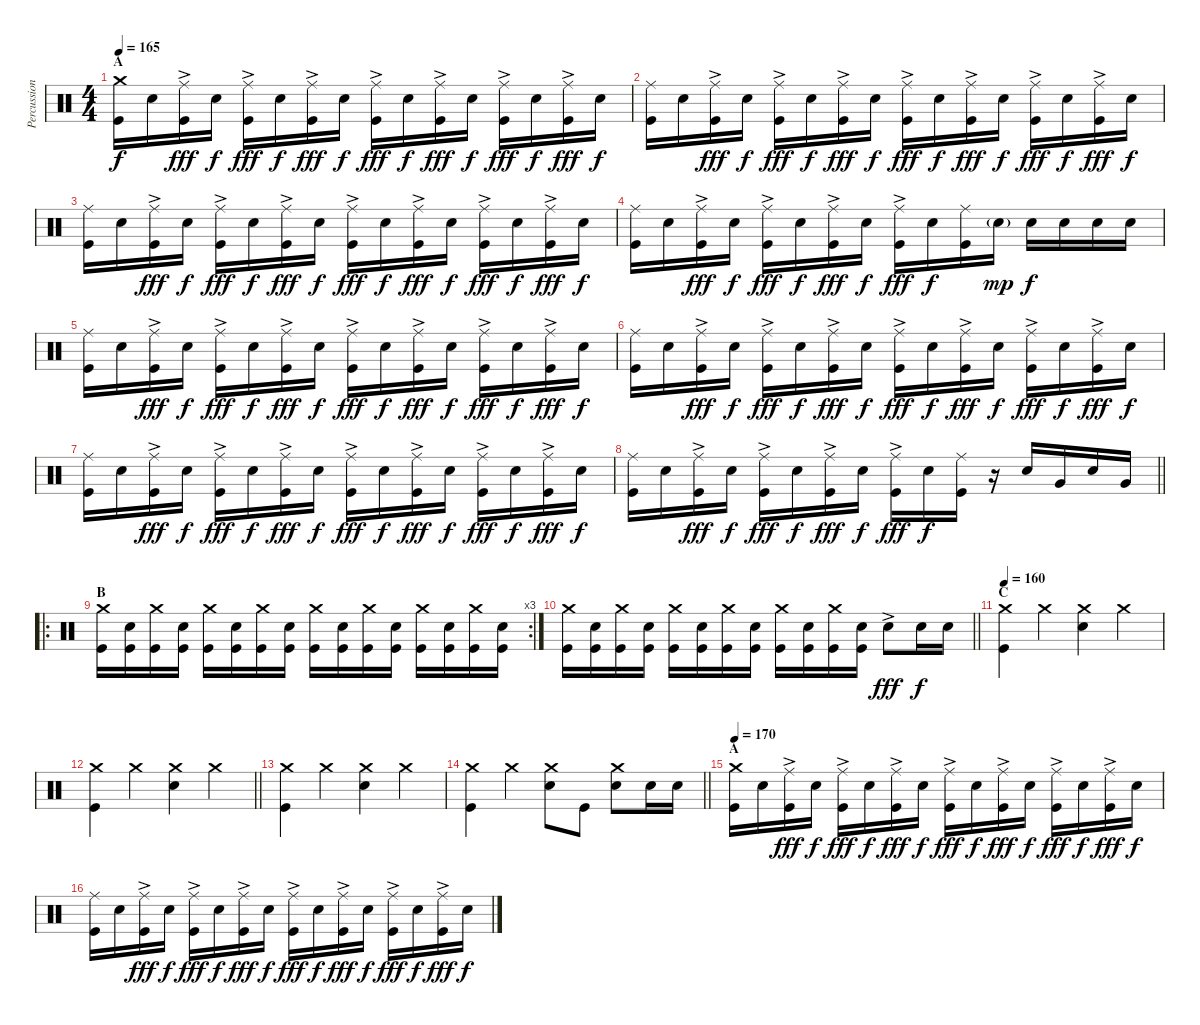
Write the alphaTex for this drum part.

\track ("Percussion" "Percussion") {instrument percussion}
\staff {score}
\articulation defaults
\ts (4 4)
\section ("" "A")
\tempo 165
\clef neutral
\ks c
("Kick (hit)" "Crash medium (hit)").16{dy f} "Snare (hit) 2".16 ("Kick (hit)" "Ride (middle)"{ac}).16{dy fff} "Snare (hit) 2".16{dy f} ("Kick (hit)" "Ride (middle)"{ac}).16{dy fff} "Snare (hit) 2".16{dy f} ("Kick (hit)" "Ride (middle)"{ac}).16{dy fff} "Snare (hit) 2".16{dy f} ("Kick (hit)" "Ride (middle)"{ac}).16{dy fff} "Snare (hit) 2".16{dy f} ("Kick (hit)" "Ride (middle)"{ac}).16{dy fff} "Snare (hit) 2".16{dy f} ("Kick (hit)" "Ride (middle)"{ac}).16{dy fff} "Snare (hit) 2".16{dy f} ("Kick (hit)" "Ride (middle)"{ac}).16{dy fff} "Snare (hit) 2".16{dy f} |
("Kick (hit)" "Ride (middle)").16 "Snare (hit) 2".16 ("Kick (hit)" "Ride (middle)"{ac}).16{dy fff} "Snare (hit) 2".16{dy f} ("Kick (hit)" "Ride (middle)"{ac}).16{dy fff} "Snare (hit) 2".16{dy f} ("Kick (hit)" "Ride (middle)"{ac}).16{dy fff} "Snare (hit) 2".16{dy f} ("Kick (hit)" "Ride (middle)"{ac}).16{dy fff} "Snare (hit) 2".16{dy f} ("Kick (hit)" "Ride (middle)"{ac}).16{dy fff} "Snare (hit) 2".16{dy f} ("Kick (hit)" "Ride (middle)"{ac}).16{dy fff} "Snare (hit) 2".16{dy f} ("Kick (hit)" "Ride (middle)"{ac}).16{dy fff} "Snare (hit) 2".16{dy f} |
("Kick (hit)" "Ride (middle)").16 "Snare (hit) 2".16 ("Kick (hit)" "Ride (middle)"{ac}).16{dy fff} "Snare (hit) 2".16{dy f} ("Kick (hit)" "Ride (middle)"{ac}).16{dy fff} "Snare (hit) 2".16{dy f} ("Kick (hit)" "Ride (middle)"{ac}).16{dy fff} "Snare (hit) 2".16{dy f} ("Kick (hit)" "Ride (middle)"{ac}).16{dy fff} "Snare (hit) 2".16{dy f} ("Kick (hit)" "Ride (middle)"{ac}).16{dy fff} "Snare (hit) 2".16{dy f} ("Kick (hit)" "Ride (middle)"{ac}).16{dy fff} "Snare (hit) 2".16{dy f} ("Kick (hit)" "Ride (middle)"{ac}).16{dy fff} "Snare (hit) 2".16{dy f} |
("Kick (hit)" "Ride (middle)").16 "Snare (hit) 2".16 ("Kick (hit)" "Ride (middle)"{ac}).16{dy fff} "Snare (hit) 2".16{dy f} ("Kick (hit)" "Ride (middle)"{ac}).16{dy fff} "Snare (hit) 2".16{dy f} ("Kick (hit)" "Ride (middle)"{ac}).16{dy fff} "Snare (hit) 2".16{dy f} ("Kick (hit)" "Ride (middle)"{ac}).16{dy fff} "Snare (hit) 2".16{dy f} ("Kick (hit)" "Ride (middle)").16 "Snare (hit) 2"{g}.16{dy mp} "Snare (hit) 2".16{dy f} "Snare (hit) 2".16 "Snare (hit) 2".16 "Snare (hit) 2".16 |
("Kick (hit)" "Ride (middle)").16 "Snare (hit) 2".16 ("Kick (hit)" "Ride (middle)"{ac}).16{dy fff} "Snare (hit) 2".16{dy f} ("Kick (hit)" "Ride (middle)"{ac}).16{dy fff} "Snare (hit) 2".16{dy f} ("Kick (hit)" "Ride (middle)"{ac}).16{dy fff} "Snare (hit) 2".16{dy f} ("Kick (hit)" "Ride (middle)"{ac}).16{dy fff} "Snare (hit) 2".16{dy f} ("Kick (hit)" "Ride (middle)"{ac}).16{dy fff} "Snare (hit) 2".16{dy f} ("Kick (hit)" "Ride (middle)"{ac}).16{dy fff} "Snare (hit) 2".16{dy f} ("Kick (hit)" "Ride (middle)"{ac}).16{dy fff} "Snare (hit) 2".16{dy f} |
("Kick (hit)" "Ride (middle)").16 "Snare (hit) 2".16 ("Kick (hit)" "Ride (middle)"{ac}).16{dy fff} "Snare (hit) 2".16{dy f} ("Kick (hit)" "Ride (middle)"{ac}).16{dy fff} "Snare (hit) 2".16{dy f} ("Kick (hit)" "Ride (middle)"{ac}).16{dy fff} "Snare (hit) 2".16{dy f} ("Kick (hit)" "Ride (middle)"{ac}).16{dy fff} "Snare (hit) 2".16{dy f} ("Kick (hit)" "Ride (middle)"{ac}).16{dy fff} "Snare (hit) 2".16{dy f} ("Kick (hit)" "Ride (middle)"{ac}).16{dy fff} "Snare (hit) 2".16{dy f} ("Kick (hit)" "Ride (middle)"{ac}).16{dy fff} "Snare (hit) 2".16{dy f} |
("Kick (hit)" "Ride (middle)").16 "Snare (hit) 2".16 ("Kick (hit)" "Ride (middle)"{ac}).16{dy fff} "Snare (hit) 2".16{dy f} ("Kick (hit)" "Ride (middle)"{ac}).16{dy fff} "Snare (hit) 2".16{dy f} ("Kick (hit)" "Ride (middle)"{ac}).16{dy fff} "Snare (hit) 2".16{dy f} ("Kick (hit)" "Ride (middle)"{ac}).16{dy fff} "Snare (hit) 2".16{dy f} ("Kick (hit)" "Ride (middle)"{ac}).16{dy fff} "Snare (hit) 2".16{dy f} ("Kick (hit)" "Ride (middle)"{ac}).16{dy fff} "Snare (hit) 2".16{dy f} ("Kick (hit)" "Ride (middle)"{ac}).16{dy fff} "Snare (hit) 2".16{dy f} |
\barLineRight lightlight
("Kick (hit)" "Ride (middle)").16 "Snare (hit) 2".16 ("Kick (hit)" "Ride (middle)"{ac}).16{dy fff} "Snare (hit) 2".16{dy f} ("Kick (hit)" "Ride (middle)"{ac}).16{dy fff} "Snare (hit) 2".16{dy f} ("Kick (hit)" "Ride (middle)"{ac}).16{dy fff} "Snare (hit) 2".16{dy f} ("Kick (hit)" "Ride (middle)"{ac}).16{dy fff} "Snare (hit) 2".16{dy f} ("Kick (hit)" "Ride (middle)").16 r.16 "Snare (hit) 2".16 "Very Low Tom (hit)".16 "Snare (hit) 2".16 "Very Low Tom (hit)".16 |
\ro
\rc 3
\section ("" "B")
("Kick (hit)" "Crash medium (hit)").16 ("Kick (hit)" "Snare (hit) 2").16 ("Kick (hit)" "Crash medium (hit)").16 ("Kick (hit)" "Snare (hit) 2").16 ("Kick (hit)" "Crash medium (hit)").16 ("Kick (hit)" "Snare (hit) 2").16 ("Kick (hit)" "Crash medium (hit)").16 ("Kick (hit)" "Snare (hit) 2").16 ("Kick (hit)" "Crash medium (hit)").16 ("Kick (hit)" "Snare (hit) 2").16 ("Kick (hit)" "Crash medium (hit)").16 ("Kick (hit)" "Snare (hit) 2").16 ("Kick (hit)" "Crash medium (hit)").16 ("Kick (hit)" "Snare (hit) 2").16 ("Kick (hit)" "Crash medium (hit)").16 ("Kick (hit)" "Snare (hit) 2").16 |
\barLineRight lightlight
("Kick (hit)" "Crash medium (hit)").16 ("Kick (hit)" "Snare (hit) 2").16 ("Kick (hit)" "Crash medium (hit)").16 ("Kick (hit)" "Snare (hit) 2").16 ("Kick (hit)" "Crash medium (hit)").16 ("Kick (hit)" "Snare (hit) 2").16 ("Kick (hit)" "Crash medium (hit)").16 ("Kick (hit)" "Snare (hit) 2").16 ("Kick (hit)" "Crash medium (hit)").16 ("Kick (hit)" "Snare (hit) 2").16 ("Kick (hit)" "Crash medium (hit)").16 ("Kick (hit)" "Snare (hit) 2").16 "Snare (hit) 2"{ac}.8{dy fff} "Snare (hit) 2".16{dy f} "Snare (hit) 2".16 |
\section ("" "C")
\tempo 160
("Kick (hit)" "Crash medium (hit)").4 "Crash medium (hit)".4 ("Snare (hit) 2" "Crash medium (hit)").4 "Crash medium (hit)".4 |
\barLineRight lightlight
("Kick (hit)" "Crash medium (hit)").4 "Crash medium (hit)".4 ("Snare (hit) 2" "Crash medium (hit)").4 "Crash medium (hit)".4 |
("Kick (hit)" "Crash medium (hit)").4 "Crash medium (hit)".4 ("Snare (hit) 2" "Crash medium (hit)").4 "Crash medium (hit)".4 |
\barLineRight lightlight
("Kick (hit)" "Crash medium (hit)").4 "Crash medium (hit)".4 ("Snare (hit) 2" "Crash medium (hit)").8 "Kick (hit)".8 ("Snare (hit) 2" "Crash medium (hit)").8 "Snare (hit) 2".16 "Snare (hit) 2".16 |
\section ("" "A")
\tempo 170
("Kick (hit)" "Crash medium (hit)").16 "Snare (hit) 2".16 ("Kick (hit)" "Ride (middle)"{ac}).16{dy fff} "Snare (hit) 2".16{dy f} ("Kick (hit)" "Ride (middle)"{ac}).16{dy fff} "Snare (hit) 2".16{dy f} ("Kick (hit)" "Ride (middle)"{ac}).16{dy fff} "Snare (hit) 2".16{dy f} ("Kick (hit)" "Ride (middle)"{ac}).16{dy fff} "Snare (hit) 2".16{dy f} ("Kick (hit)" "Ride (middle)"{ac}).16{dy fff} "Snare (hit) 2".16{dy f} ("Kick (hit)" "Ride (middle)"{ac}).16{dy fff} "Snare (hit) 2".16{dy f} ("Kick (hit)" "Ride (middle)"{ac}).16{dy fff} "Snare (hit) 2".16{dy f} |
("Kick (hit)" "Ride (middle)").16 "Snare (hit) 2".16 ("Kick (hit)" "Ride (middle)"{ac}).16{dy fff} "Snare (hit) 2".16{dy f} ("Kick (hit)" "Ride (middle)"{ac}).16{dy fff} "Snare (hit) 2".16{dy f} ("Kick (hit)" "Ride (middle)"{ac}).16{dy fff} "Snare (hit) 2".16{dy f} ("Kick (hit)" "Ride (middle)"{ac}).16{dy fff} "Snare (hit) 2".16{dy f} ("Kick (hit)" "Ride (middle)"{ac}).16{dy fff} "Snare (hit) 2".16{dy f} ("Kick (hit)" "Ride (middle)"{ac}).16{dy fff} "Snare (hit) 2".16{dy f} ("Kick (hit)" "Ride (middle)"{ac}).16{dy fff} "Snare (hit) 2".16{dy f}
